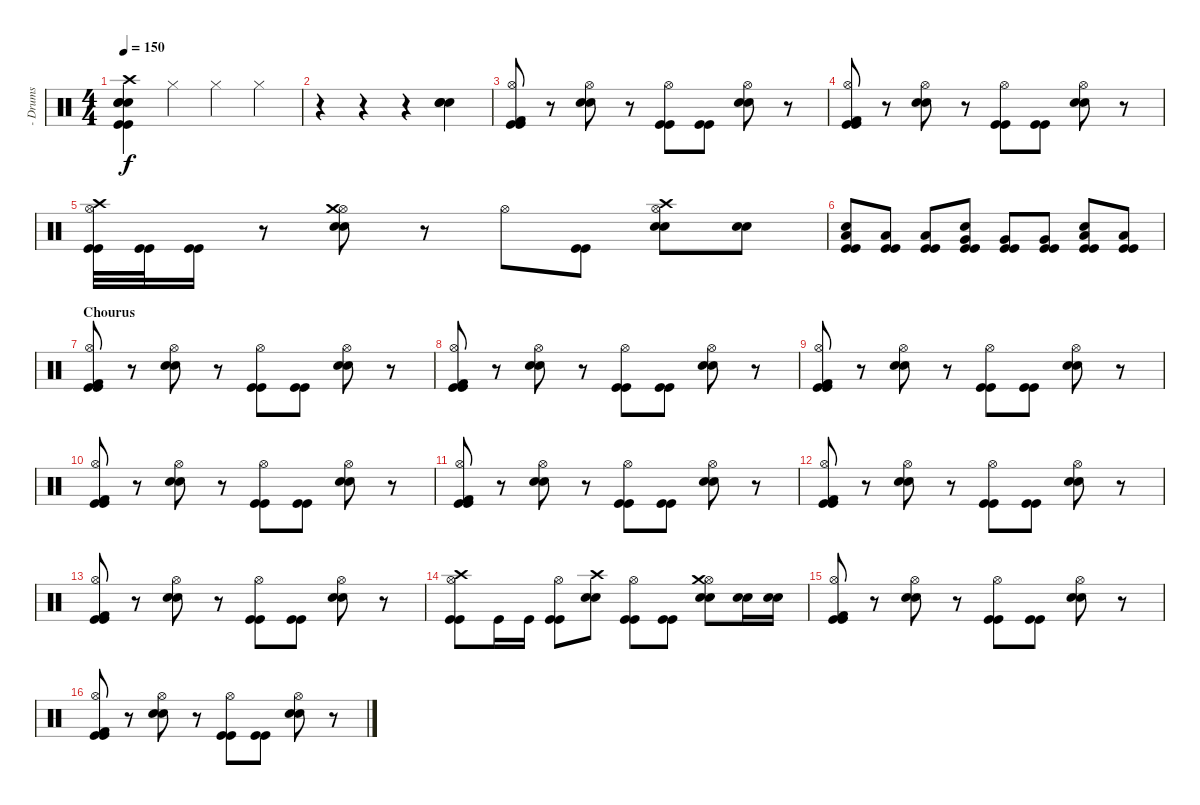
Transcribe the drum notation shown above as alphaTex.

\track (" - Drums" " - Drums") {instrument percussion}
\staff {score}
\articulation defaults
\ts (4 4)
\tempo 150
\clef neutral
\ks c
("Crash high (hit)" "Snare (hit) 2" "Snare (hit) 2" "Snare (hit) 2" "Kick (hit)" "Kick (hit)").4{dy f} "Hi-Hat (closed)".4 "Hi-Hat (closed)".4 "Hi-Hat (closed)".4 |
r.4 r.4 r.4 ("Snare (hit) 2" "Snare (hit) 2" "Snare (hit) 2").4 |
("Hi-Hat (open)" "Kick (hit) 2" "Kick (hit)" "Kick (hit)").8 r.8 ("Hi-Hat (open)" "Snare (hit) 2" "Snare (hit) 2").8 r.8 ("Hi-Hat (open)" "Kick (hit)" "Kick (hit)").8 ("Kick (hit)" "Kick (hit)").8 ("Hi-Hat (open)" "Snare (hit) 2" "Snare (hit) 2").8 r.8 |
("Hi-Hat (open)" "Kick (hit) 2" "Kick (hit)" "Kick (hit)").8 r.8 ("Hi-Hat (open)" "Snare (hit) 2" "Snare (hit) 2").8 r.8 ("Hi-Hat (open)" "Kick (hit)" "Kick (hit)").8 ("Kick (hit)" "Kick (hit)").8 ("Hi-Hat (open)" "Snare (hit) 2" "Snare (hit) 2").8 r.8 |
("Hi-Hat (open)" "Crash high (hit)" "Kick (hit)" "Kick (hit)").32 ("Kick (hit)" "Kick (hit)").32 ("Kick (hit)" "Kick (hit)").16 r.8 ("Hi-Hat (open)" "Crash medium (hit)" "Snare (hit) 2" "Snare (hit) 2").8 r.8 "Hi-Hat (open)".8 ("Kick (hit)" "Kick (hit)").8 ("Hi-Hat (open)" "Crash high (hit)" "Snare (hit) 2" "Snare (hit) 2").8 ("Snare (hit) 2" "Snare (hit) 2").8 |
("Low Tom (hit)" "Snare (hit) 2" "Kick (hit)" "Kick (hit)").8 ("Low Tom (hit)" "Kick (hit)" "Kick (hit)").8 ("Low Tom (hit)" "Kick (hit)" "Kick (hit)").8 ("Very Low Tom (hit)" "Snare (hit) 2" "Kick (hit)" "Kick (hit)").8 ("Very Low Tom (hit)" "Kick (hit)" "Kick (hit)").8 ("Very Low Tom (hit)" "Kick (hit)" "Kick (hit)").8 ("Low Floor Tom (hit)" "Snare (hit) 2" "Kick (hit)" "Kick (hit)").8 ("Low Floor Tom (hit)" "Kick (hit)" "Kick (hit)").8 |
\section ("" "Chourus")
("Hi-Hat (open)" "Kick (hit) 2" "Kick (hit)" "Kick (hit)").8 r.8 ("Hi-Hat (open)" "Snare (hit) 2" "Snare (hit) 2").8 r.8 ("Hi-Hat (open)" "Kick (hit)" "Kick (hit)").8 ("Kick (hit)" "Kick (hit)").8 ("Hi-Hat (open)" "Snare (hit) 2" "Snare (hit) 2").8 r.8 |
("Hi-Hat (open)" "Kick (hit) 2" "Kick (hit)" "Kick (hit)").8 r.8 ("Hi-Hat (open)" "Snare (hit) 2" "Snare (hit) 2").8 r.8 ("Hi-Hat (open)" "Kick (hit)" "Kick (hit)").8 ("Kick (hit)" "Kick (hit)").8 ("Hi-Hat (open)" "Snare (hit) 2" "Snare (hit) 2").8 r.8 |
("Hi-Hat (open)" "Kick (hit) 2" "Kick (hit)" "Kick (hit)").8 r.8 ("Hi-Hat (open)" "Snare (hit) 2" "Snare (hit) 2").8 r.8 ("Hi-Hat (open)" "Kick (hit)" "Kick (hit)").8 ("Kick (hit)" "Kick (hit)").8 ("Hi-Hat (open)" "Snare (hit) 2" "Snare (hit) 2").8 r.8 |
("Hi-Hat (open)" "Kick (hit) 2" "Kick (hit)" "Kick (hit)").8 r.8 ("Hi-Hat (open)" "Snare (hit) 2" "Snare (hit) 2").8 r.8 ("Hi-Hat (open)" "Kick (hit)" "Kick (hit)").8 ("Kick (hit)" "Kick (hit)").8 ("Hi-Hat (open)" "Snare (hit) 2" "Snare (hit) 2").8 r.8 |
("Hi-Hat (open)" "Kick (hit) 2" "Kick (hit)" "Kick (hit)").8 r.8 ("Hi-Hat (open)" "Snare (hit) 2" "Snare (hit) 2").8 r.8 ("Hi-Hat (open)" "Kick (hit)" "Kick (hit)").8 ("Kick (hit)" "Kick (hit)").8 ("Hi-Hat (open)" "Snare (hit) 2" "Snare (hit) 2").8 r.8 |
("Hi-Hat (open)" "Kick (hit) 2" "Kick (hit)" "Kick (hit)").8 r.8 ("Hi-Hat (open)" "Snare (hit) 2" "Snare (hit) 2").8 r.8 ("Hi-Hat (open)" "Kick (hit)" "Kick (hit)").8 ("Kick (hit)" "Kick (hit)").8 ("Hi-Hat (open)" "Snare (hit) 2" "Snare (hit) 2").8 r.8 |
("Hi-Hat (open)" "Kick (hit) 2" "Kick (hit)" "Kick (hit)").8 r.8 ("Hi-Hat (open)" "Snare (hit) 2" "Snare (hit) 2").8 r.8 ("Hi-Hat (open)" "Kick (hit)" "Kick (hit)").8 ("Kick (hit)" "Kick (hit)").8 ("Hi-Hat (open)" "Snare (hit) 2" "Snare (hit) 2").8 r.8 |
("Hi-Hat (open)" "Crash high (hit)" "Kick (hit)" "Kick (hit)").8 "Kick (hit)".16 "Kick (hit)".16 ("Hi-Hat (open)" "Kick (hit)" "Kick (hit)").8 ("Crash high (hit)" "Snare (hit) 2" "Snare (hit) 2").8 ("Hi-Hat (open)" "Kick (hit)" "Kick (hit)").8 ("Kick (hit)" "Kick (hit)").8 ("Hi-Hat (open)" "Crash medium (hit)" "Snare (hit) 2" "Snare (hit) 2").8 ("Snare (hit) 2" "Snare (hit) 2").16 ("Snare (hit) 2" "Snare (hit) 2").16 |
("Hi-Hat (open)" "Kick (hit) 2" "Kick (hit)" "Kick (hit)").8 r.8 ("Hi-Hat (open)" "Snare (hit) 2" "Snare (hit) 2").8 r.8 ("Hi-Hat (open)" "Kick (hit)" "Kick (hit)").8 ("Kick (hit)" "Kick (hit)").8 ("Hi-Hat (open)" "Snare (hit) 2" "Snare (hit) 2").8 r.8 |
("Hi-Hat (open)" "Kick (hit) 2" "Kick (hit)" "Kick (hit)").8 r.8 ("Hi-Hat (open)" "Snare (hit) 2" "Snare (hit) 2").8 r.8 ("Hi-Hat (open)" "Kick (hit)" "Kick (hit)").8 ("Kick (hit)" "Kick (hit)").8 ("Hi-Hat (open)" "Snare (hit) 2" "Snare (hit) 2").8 r.8
